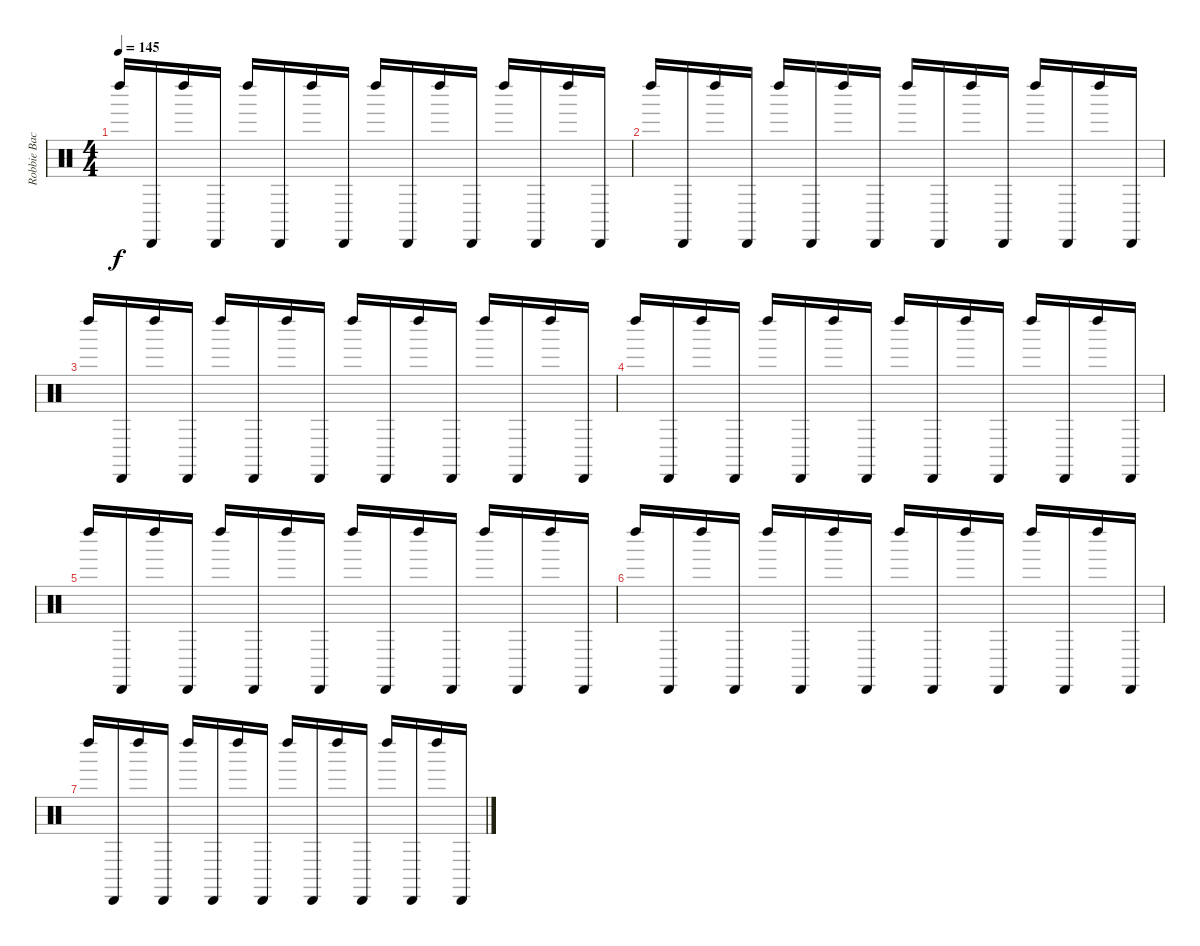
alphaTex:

\track ("Robbie Bachman 2" "Robbie Bac") {instrument percussion}
\staff {score}
\articulation defaults
\ts (4 4)
\tempo 145
\clef neutral
\ks c "Left Maraca (hit)".16{dy f} "Cabasa (hit)".16 "Left Maraca (hit)".16 "Cabasa (hit)".16 "Left Maraca (hit)".16 "Cabasa (hit)".16 "Left Maraca (hit)".16 "Cabasa (hit)".16 "Left Maraca (hit)".16 "Cabasa (hit)".16 "Left Maraca (hit)".16 "Cabasa (hit)".16 "Left Maraca (hit)".16 "Cabasa (hit)".16 "Left Maraca (hit)".16 "Cabasa (hit)".16
|
"Left Maraca (hit)".16 "Cabasa (hit)".16 "Left Maraca (hit)".16 "Cabasa (hit)".16 "Left Maraca (hit)".16 "Cabasa (hit)".16 "Left Maraca (hit)".16 "Cabasa (hit)".16 "Left Maraca (hit)".16 "Cabasa (hit)".16 "Left Maraca (hit)".16 "Cabasa (hit)".16 "Left Maraca (hit)".16 "Cabasa (hit)".16 "Left Maraca (hit)".16 "Cabasa (hit)".16 |
"Left Maraca (hit)".16 "Cabasa (hit)".16 "Left Maraca (hit)".16 "Cabasa (hit)".16 "Left Maraca (hit)".16 "Cabasa (hit)".16 "Left Maraca (hit)".16 "Cabasa (hit)".16 "Left Maraca (hit)".16 "Cabasa (hit)".16 "Left Maraca (hit)".16 "Cabasa (hit)".16 "Left Maraca (hit)".16 "Cabasa (hit)".16 "Left Maraca (hit)".16 "Cabasa (hit)".16 |
"Left Maraca (hit)".16 "Cabasa (hit)".16 "Left Maraca (hit)".16 "Cabasa (hit)".16 "Left Maraca (hit)".16 "Cabasa (hit)".16 "Left Maraca (hit)".16 "Cabasa (hit)".16 "Left Maraca (hit)".16 "Cabasa (hit)".16 "Left Maraca (hit)".16 "Cabasa (hit)".16 "Left Maraca (hit)".16 "Cabasa (hit)".16 "Left Maraca (hit)".16 "Cabasa (hit)".16 |
"Left Maraca (hit)".16 "Cabasa (hit)".16 "Left Maraca (hit)".16 "Cabasa (hit)".16 "Left Maraca (hit)".16 "Cabasa (hit)".16 "Left Maraca (hit)".16 "Cabasa (hit)".16 "Left Maraca (hit)".16 "Cabasa (hit)".16 "Left Maraca (hit)".16 "Cabasa (hit)".16 "Left Maraca (hit)".16 "Cabasa (hit)".16 "Left Maraca (hit)".16 "Cabasa (hit)".16 |
"Left Maraca (hit)".16 "Cabasa (hit)".16 "Left Maraca (hit)".16 "Cabasa (hit)".16 "Left Maraca (hit)".16 "Cabasa (hit)".16 "Left Maraca (hit)".16 "Cabasa (hit)".16 "Left Maraca (hit)".16 "Cabasa (hit)".16 "Left Maraca (hit)".16 "Cabasa (hit)".16 "Left Maraca (hit)".16 "Cabasa (hit)".16 "Left Maraca (hit)".16 "Cabasa (hit)".16 |
"Left Maraca (hit)".16 "Cabasa (hit)".16 "Left Maraca (hit)".16 "Cabasa (hit)".16 "Left Maraca (hit)".16 "Cabasa (hit)".16 "Left Maraca (hit)".16 "Cabasa (hit)".16 "Left Maraca (hit)".16 "Cabasa (hit)".16 "Left Maraca (hit)".16 "Cabasa (hit)".16 "Left Maraca (hit)".16 "Cabasa (hit)".16 "Left Maraca (hit)".16 "Cabasa (hit)".16
